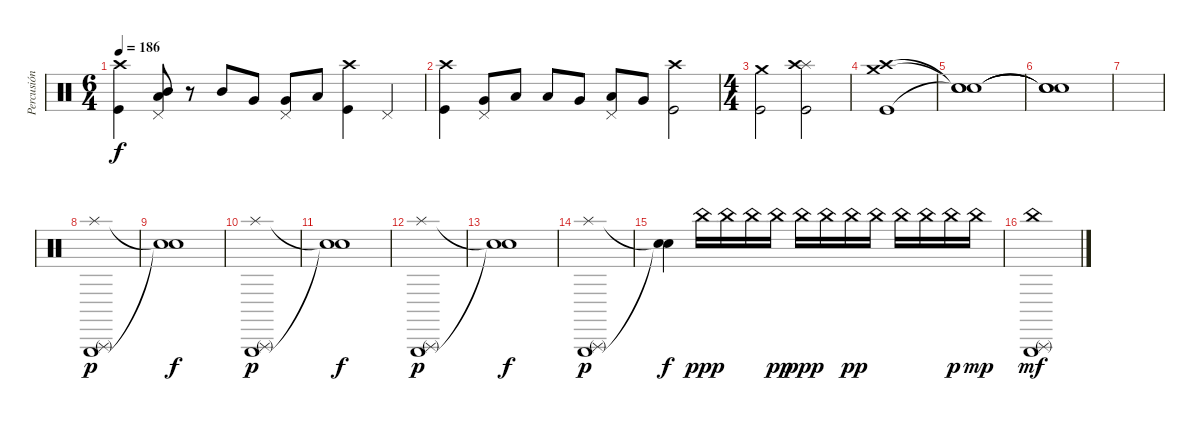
\track ("Percusión" "Percusión") {instrument percussion}
\staff {score}
\articulation defaults
\ts (6 4)
\tempo 186
\clef neutral
\ks c
("Crash high (hit)" "Kick (hit)").4{dy f} ("Low Tom (hit)" "Mid Tom (hit)" "Pedal Hi-Hat (hit)").8 r.8 "Mid Tom (hit)".8 "Very Low Tom (hit)".8 ("Very Low Tom (hit)" "Pedal Hi-Hat (hit)").8 "Low Tom (hit)".8 ("Crash high (hit)" "Kick (hit)").4 "Pedal Hi-Hat (hit)".4 |
("Crash high (hit)" "Kick (hit)").4 ("Very Low Tom (hit)" "Pedal Hi-Hat (hit)").8 "Low Tom (hit)".8 "Low Tom (hit)".8 "Very Low Tom (hit)".8 ("Low Floor Tom (hit)" "Pedal Hi-Hat (hit)").8 "Very Low Tom (hit)".8 ("Crash high (hit)" "Kick (hit)").2 |
\ts (4 4)
("Crash medium (hit)" "Kick (hit)").2 ("Splash (hit)" "Crash high (hit)" "Kick (hit)").2 |
("Crash high (hit)" "Crash medium (hit)" "Kick (hit)").1 |
("Snare (hit)"{t} "Snare (hit)"{t} "Snare (hit)"{t}).1 |
("Snare (hit)"{t} "Snare (hit)"{t} "Snare (hit)"{t}).1 |
|
("Splash (hit)" "Triangle (rnute)" "Triangle (hit)").1{dy p} |
("Snare (hit)"{t} "Snare (hit)"{t}).1{dy f} |
("Splash (hit)" "Triangle (rnute)" "Triangle (hit)").1{dy p} |
("Snare (hit)"{t} "Snare (hit)"{t}).1{dy f} |
("Splash (hit)" "Triangle (rnute)" "Triangle (hit)").1{dy p} |
("Snare (hit)"{t} "Snare (hit)"{t}).1{dy f} |
("Splash (hit)" "Triangle (rnute)" "Triangle (hit)").1{dy p} |
("Snare (hit)"{t} "Snare (hit)"{t}).4{dy f} "China (hit)".16{dy ppp} "China (hit)".16 "China (hit)".16 "China (hit)".16{dy pp} "China (hit)".16{dy ppp} "China (hit)".16 "China (hit)".16{dy pp} "China (hit)".16 "China (hit)".16 "China (hit)".16 "China (hit)".16{dy p} "China (hit)".16{dy mp} |
("China (hit)" "Triangle (rnute)" "Triangle (hit)").1{dy mf}
